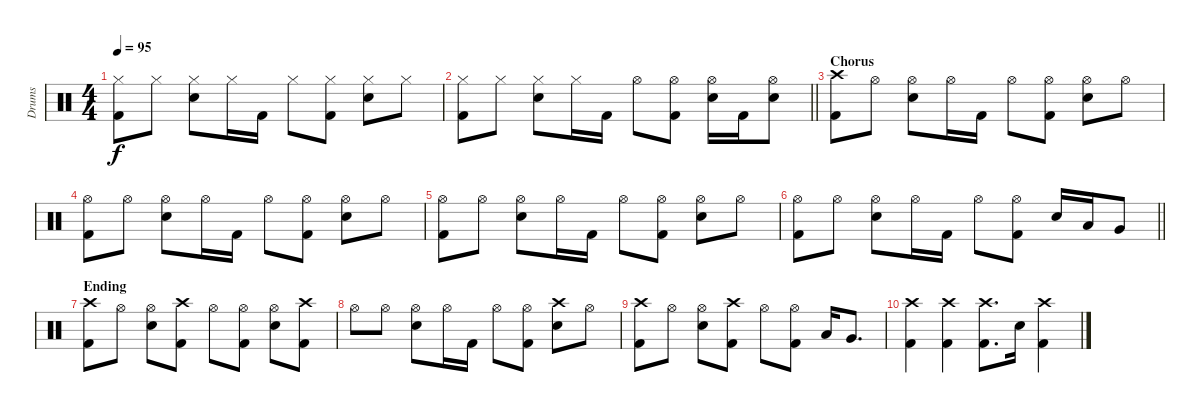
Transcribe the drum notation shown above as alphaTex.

\track ("Drums" "Drums") {instrument percussion}
\staff {score}
\articulation defaults
\ts (4 4)
\tempo 95
\clef neutral
\ks c
("Hi-Hat (closed)" "Kick (hit) 2").8{dy f} "Hi-Hat (closed)".8 ("Hi-Hat (closed)" "Electric Snare (hit)").8 "Hi-Hat (closed)".16 "Kick (hit) 2".16 "Hi-Hat (closed)".8 ("Hi-Hat (closed)" "Kick (hit) 2").8 ("Hi-Hat (closed)" "Electric Snare (hit)").8 "Hi-Hat (closed)".8 |
\barLineRight lightlight
("Hi-Hat (closed)" "Kick (hit) 2").8 "Hi-Hat (closed)".8 ("Hi-Hat (closed)" "Electric Snare (hit)").8 "Hi-Hat (closed)".16 "Kick (hit) 2".16 "Hi-Hat (open)".8 ("Hi-Hat (open)" "Kick (hit) 2").8 ("Hi-Hat (open)" "Electric Snare (hit)").16 "Kick (hit) 2".16 ("Hi-Hat (open)" "Electric Snare (hit)").8 |
\section ("" "Chorus")
("Crash high (hit)" "Kick (hit) 2").8 "Hi-Hat (open)".8 ("Hi-Hat (open)" "Electric Snare (hit)").8 "Hi-Hat (open)".16 "Kick (hit) 2".16 "Hi-Hat (open)".8 ("Hi-Hat (open)" "Kick (hit) 2").8 ("Hi-Hat (open)" "Electric Snare (hit)").8 "Hi-Hat (open)".8 |
("Hi-Hat (open)" "Kick (hit) 2").8 "Hi-Hat (open)".8 ("Hi-Hat (open)" "Electric Snare (hit)").8 "Hi-Hat (open)".16 "Kick (hit) 2".16 "Hi-Hat (open)".8 ("Hi-Hat (open)" "Kick (hit) 2").8 ("Hi-Hat (open)" "Electric Snare (hit)").8 "Hi-Hat (open)".8 |
("Hi-Hat (open)" "Kick (hit) 2").8 "Hi-Hat (open)".8{txt ""} ("Hi-Hat (open)" "Electric Snare (hit)").8 "Hi-Hat (open)".16 "Kick (hit) 2".16 "Hi-Hat (open)".8 ("Hi-Hat (open)" "Kick (hit) 2").8 ("Hi-Hat (open)" "Electric Snare (hit)").8 "Hi-Hat (open)".8 |
\barLineRight lightlight
("Hi-Hat (open)" "Kick (hit) 2").8 "Hi-Hat (open)".8 ("Hi-Hat (open)" "Electric Snare (hit)").8 "Hi-Hat (open)".16 "Kick (hit) 2".16 "Hi-Hat (open)".8 ("Hi-Hat (open)" "Kick (hit) 2").8 "Electric Snare (hit)".16 "Low Tom (hit)".16 "Very Low Tom (hit)".8 |
\section ("" "Ending")
("Crash high (hit)" "Kick (hit) 2").8 "Hi-Hat (open)".8 ("Hi-Hat (open)" "Electric Snare (hit)").8 ("Crash high (hit)" "Kick (hit) 2").8 "Hi-Hat (open)".8 ("Hi-Hat (open)" "Kick (hit) 2").8 ("Hi-Hat (open)" "Electric Snare (hit)").8 ("Crash high (hit)" "Kick (hit) 2").8 |
"Hi-Hat (open)".8 "Hi-Hat (open)".8 ("Hi-Hat (open)" "Electric Snare (hit)").8 "Hi-Hat (open)".16 "Kick (hit) 2".16 "Hi-Hat (open)".8 ("Hi-Hat (open)" "Kick (hit) 2").8 ("Crash high (hit)" "Electric Snare (hit)").8 "Hi-Hat (open)".8 |
("Crash high (hit)" "Kick (hit) 2").8 "Hi-Hat (open)".8 ("Hi-Hat (open)" "Electric Snare (hit)").8 ("Crash high (hit)" "Kick (hit) 2").8 "Hi-Hat (open)".8 ("Hi-Hat (open)" "Kick (hit) 2").8 "Low Tom (hit)".16 "Very Low Tom (hit)".8{d} |
("Crash high (hit)" "Kick (hit) 2").4 ("Crash high (hit)" "Kick (hit) 2").4 ("Crash high (hit)" "Kick (hit) 2").8{d} "Electric Snare (hit)".16 ("Crash high (hit)" "Kick (hit) 2").4
